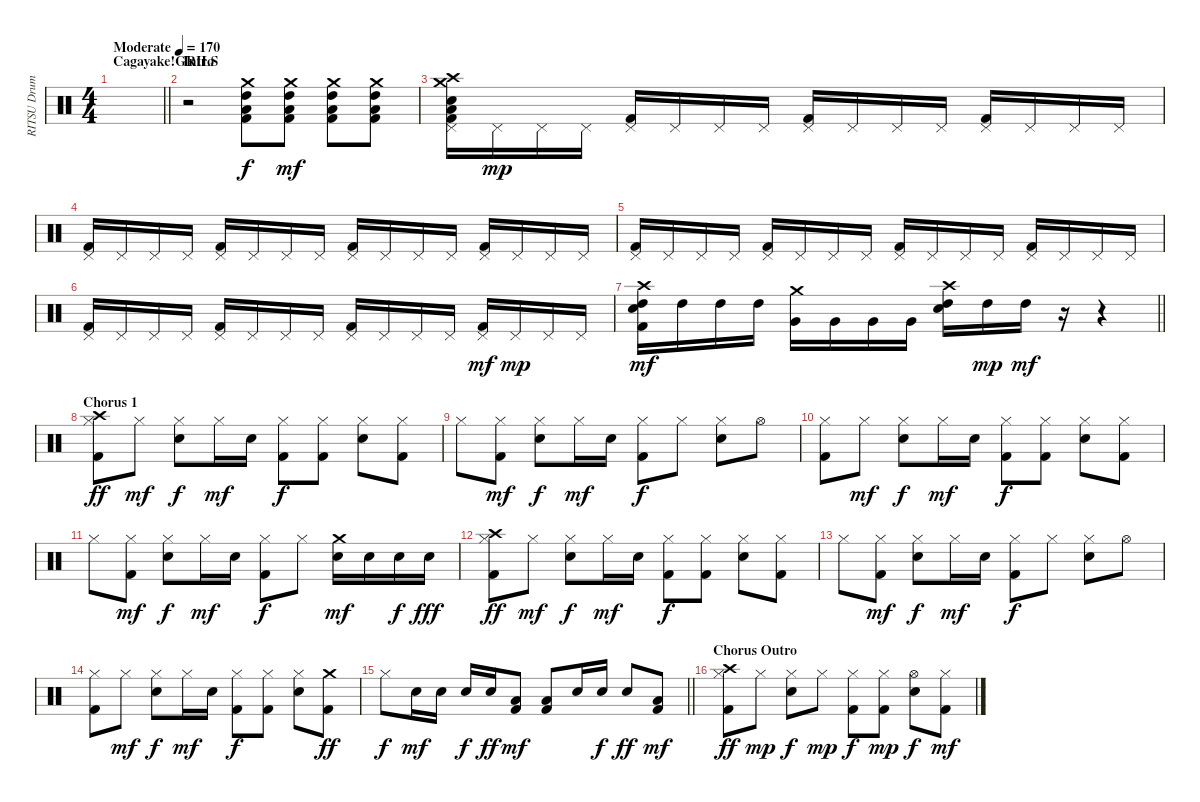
\track ("RITSU Drums" "RITSU Drum") {instrument percussion}
\staff {score}
\articulation defaults
\ts (4 4)
\section ("" "Cagayake!GRILS")
\tempo (170 "Moderate")
\clef neutral
\barLineRight lightlight
\ks c
|
\section ("" "Intro")
r.2 ("Crash medium (hit)" "High Tom (hit)" "Low Floor Tom (hit)" "Kick (hit) 2").8 ("Crash medium (hit)" "High Tom (hit)" "Low Floor Tom (hit)" "Kick (hit) 2").8{dy mf} ("Crash medium (hit)" "High Tom (hit)" "Low Floor Tom (hit)" "Kick (hit) 2").8 ("Crash medium (hit)" "High Tom (hit)" "Low Floor Tom (hit)" "Kick (hit) 2").8 |
("Crash medium (hit)" "Crash high (hit)" "Pedal Hi-Hat (hit)" "Electric Snare (hit)" "Low Floor Tom (hit)" "Kick (hit) 2").16 "Pedal Hi-Hat (hit)".16{dy mp} "Pedal Hi-Hat (hit)".16 "Pedal Hi-Hat (hit)".16 ("Pedal Hi-Hat (hit)" "Kick (hit) 2").16 "Pedal Hi-Hat (hit)".16 "Pedal Hi-Hat (hit)".16 "Pedal Hi-Hat (hit)".16 ("Pedal Hi-Hat (hit)" "Kick (hit) 2").16 "Pedal Hi-Hat (hit)".16 "Pedal Hi-Hat (hit)".16 "Pedal Hi-Hat (hit)".16 ("Pedal Hi-Hat (hit)" "Kick (hit) 2").16 "Pedal Hi-Hat (hit)".16 "Pedal Hi-Hat (hit)".16 "Pedal Hi-Hat (hit)".16 |
("Pedal Hi-Hat (hit)" "Kick (hit) 2").16 "Pedal Hi-Hat (hit)".16 "Pedal Hi-Hat (hit)".16 "Pedal Hi-Hat (hit)".16 ("Pedal Hi-Hat (hit)" "Kick (hit) 2").16 "Pedal Hi-Hat (hit)".16 "Pedal Hi-Hat (hit)".16 "Pedal Hi-Hat (hit)".16 ("Pedal Hi-Hat (hit)" "Kick (hit) 2").16 "Pedal Hi-Hat (hit)".16 "Pedal Hi-Hat (hit)".16 "Pedal Hi-Hat (hit)".16 ("Pedal Hi-Hat (hit)" "Kick (hit) 2").16 "Pedal Hi-Hat (hit)".16 "Pedal Hi-Hat (hit)".16 "Pedal Hi-Hat (hit)".16 |
("Pedal Hi-Hat (hit)" "Kick (hit) 2").16 "Pedal Hi-Hat (hit)".16 "Pedal Hi-Hat (hit)".16 "Pedal Hi-Hat (hit)".16 ("Pedal Hi-Hat (hit)" "Kick (hit) 2").16 "Pedal Hi-Hat (hit)".16 "Pedal Hi-Hat (hit)".16 "Pedal Hi-Hat (hit)".16 ("Pedal Hi-Hat (hit)" "Kick (hit) 2").16 "Pedal Hi-Hat (hit)".16 "Pedal Hi-Hat (hit)".16 "Pedal Hi-Hat (hit)".16 ("Pedal Hi-Hat (hit)" "Kick (hit) 2").16 "Pedal Hi-Hat (hit)".16 "Pedal Hi-Hat (hit)".16 "Pedal Hi-Hat (hit)".16 |
("Pedal Hi-Hat (hit)" "Kick (hit) 2").16 "Pedal Hi-Hat (hit)".16 "Pedal Hi-Hat (hit)".16 "Pedal Hi-Hat (hit)".16 ("Pedal Hi-Hat (hit)" "Kick (hit) 2").16 "Pedal Hi-Hat (hit)".16 "Pedal Hi-Hat (hit)".16 "Pedal Hi-Hat (hit)".16 ("Pedal Hi-Hat (hit)" "Kick (hit) 2").16 "Pedal Hi-Hat (hit)".16 "Pedal Hi-Hat (hit)".16 "Pedal Hi-Hat (hit)".16 ("Pedal Hi-Hat (hit)" "Kick (hit) 2").16{dy mf} "Pedal Hi-Hat (hit)".16{dy mp} "Pedal Hi-Hat (hit)".16 "Pedal Hi-Hat (hit)".16 |
\barLineRight lightlight
("Crash high (hit)" "High Tom (hit)" "Electric Snare (hit)" "Kick (hit) 2").16{dy mf} "High Tom (hit)".16 "High Tom (hit)".16 "High Tom (hit)".16 ("Crash medium (hit)" "Very Low Tom (hit)").16 "Very Low Tom (hit)".16 "Very Low Tom (hit)".16 "Very Low Tom (hit)".16 ("Crash high (hit)" "High Tom (hit)" "Electric Snare (hit)").16 "High Tom (hit)".16{dy mp} "High Tom (hit)".16{dy mf} r.16 r.4 |
\section ("" "Chorus 1")
("Crash high (hit)" "Hi-Hat (closed)" "Kick (hit) 2").8{dy ff} "Hi-Hat (closed)".8{dy mf} ("Hi-Hat (closed)" "Electric Snare (hit)").8{dy f} "Hi-Hat (closed)".16{dy mf} "Electric Snare (hit)".16 ("Hi-Hat (closed)" "Kick (hit) 2").8{dy f} ("Hi-Hat (closed)" "Kick (hit) 2").8 ("Hi-Hat (closed)" "Electric Snare (hit)").8 ("Hi-Hat (closed)" "Kick (hit) 2").8 |
"Hi-Hat (closed)".8 ("Hi-Hat (closed)" "Kick (hit) 2").8{dy mf} ("Hi-Hat (closed)" "Electric Snare (hit)").8{dy f} "Hi-Hat (closed)".16{dy mf} "Electric Snare (hit)".16 ("Hi-Hat (closed)" "Kick (hit) 2").8{dy f} "Hi-Hat (closed)".8 ("Hi-Hat (closed)" "Electric Snare (hit)").8 "Hi-Hat (open)".8 |
("Hi-Hat (closed)" "Kick (hit) 2").8 "Hi-Hat (closed)".8{dy mf} ("Hi-Hat (closed)" "Electric Snare (hit)").8{dy f} "Hi-Hat (closed)".16{dy mf} "Electric Snare (hit)".16 ("Hi-Hat (closed)" "Kick (hit) 2").8{dy f} ("Hi-Hat (closed)" "Kick (hit) 2").8 ("Hi-Hat (closed)" "Electric Snare (hit)").8 ("Hi-Hat (closed)" "Kick (hit) 2").8 |
"Hi-Hat (closed)".8 ("Hi-Hat (closed)" "Kick (hit) 2").8{dy mf} ("Hi-Hat (closed)" "Electric Snare (hit)").8{dy f} "Hi-Hat (closed)".16{dy mf} "Electric Snare (hit)".16 ("Hi-Hat (closed)" "Kick (hit) 2").8{dy f} "Hi-Hat (closed)".8 ("Crash medium (hit)" "Electric Snare (hit)").16{dy mf} "Electric Snare (hit)".16 "Electric Snare (hit)".16{dy f} "Electric Snare (hit)".16{dy fff} |
("Crash high (hit)" "Hi-Hat (closed)" "Kick (hit) 2").8{dy ff} "Hi-Hat (closed)".8{dy mf} ("Hi-Hat (closed)" "Electric Snare (hit)").8{dy f} "Hi-Hat (closed)".16{dy mf} "Electric Snare (hit)".16 ("Hi-Hat (closed)" "Kick (hit) 2").8{dy f} ("Hi-Hat (closed)" "Kick (hit) 2").8 ("Hi-Hat (closed)" "Electric Snare (hit)").8 ("Hi-Hat (closed)" "Kick (hit) 2").8 |
"Hi-Hat (closed)".8 ("Hi-Hat (closed)" "Kick (hit) 2").8{dy mf} ("Hi-Hat (closed)" "Electric Snare (hit)").8{dy f} "Hi-Hat (closed)".16{dy mf} "Electric Snare (hit)".16 ("Hi-Hat (closed)" "Kick (hit) 2").8{dy f} "Hi-Hat (closed)".8 ("Hi-Hat (closed)" "Electric Snare (hit)").8 "Hi-Hat (open)".8 |
("Hi-Hat (closed)" "Kick (hit) 2").8 "Hi-Hat (closed)".8{dy mf} ("Hi-Hat (closed)" "Electric Snare (hit)").8{dy f} "Hi-Hat (closed)".16{dy mf} "Electric Snare (hit)".16 ("Hi-Hat (closed)" "Kick (hit) 2").8{dy f} ("Hi-Hat (closed)" "Kick (hit) 2").8 ("Hi-Hat (closed)" "Electric Snare (hit)").8 ("Crash medium (hit)" "Kick (hit) 2").8{dy ff} |
\barLineRight lightlight "Hi-Hat (closed)".8{dy f} "Electric Snare (hit)".16{dy mf} "Electric Snare (hit)".16 "Electric Snare (hit)".16{dy f} "Electric Snare (hit)".16{dy ff}
("Low Tom (hit)" "Kick (hit) 2").8{dy mf} ("Low Floor Tom (hit)" "Kick (hit) 2").8 "Electric Snare (hit)".16 "Electric Snare (hit)".16{dy f} "Electric Snare (hit)".8{dy ff} ("Low Floor Tom (hit)" "Kick (hit) 2").8{dy mf} |
\section ("" "Chorus Outro")
("Crash high (hit)" "Hi-Hat (closed)" "Kick (hit) 2").8{dy ff} "Hi-Hat (closed)".8{dy mp} ("Hi-Hat (closed)" "Electric Snare (hit)").8{dy f} "Hi-Hat (closed)".8{dy mp} ("Hi-Hat (closed)" "Kick (hit) 2").8{dy f} ("Hi-Hat (closed)" "Kick (hit) 2").8{dy mp} ("Hi-Hat (open)" "Electric Snare (hit)").8{dy f} ("Hi-Hat (closed)" "Kick (hit) 2").8{dy mf}
